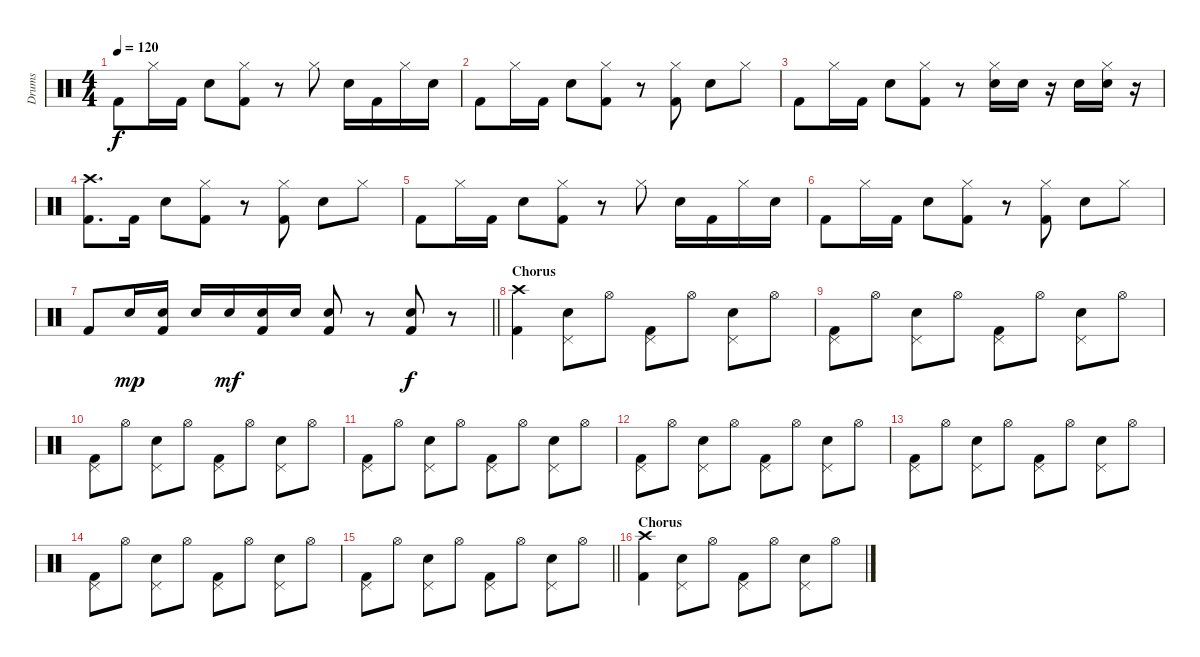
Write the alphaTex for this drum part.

\track ("Drums" "Drums") {instrument percussion}
\staff {score}
\articulation defaults
\ts (4 4)
\tempo 120
\clef neutral
\ks c "Kick (hit) 2".8{dy f} "Hi-Hat (closed)".16 "Kick (hit) 2".16 "Electric Snare (hit)".8
("Hi-Hat (closed)" "Kick (hit) 2").8 r.8 "Hi-Hat (closed)".8 "Electric Snare (hit)".16 "Kick (hit) 2".16 "Hi-Hat (closed)".16 "Electric Snare (hit)".16 |
"Kick (hit) 2".8 "Hi-Hat (closed)".16 "Kick (hit) 2".16 "Electric Snare (hit)".8 ("Hi-Hat (closed)" "Kick (hit) 2").8 r.8 ("Hi-Hat (closed)" "Kick (hit) 2").8 "Electric Snare (hit)".8 "Hi-Hat (closed)".8 |
"Kick (hit) 2".8 "Hi-Hat (closed)".16 "Kick (hit) 2".16 "Electric Snare (hit)".8 ("Hi-Hat (closed)" "Kick (hit) 2").8 r.8 ("Hi-Hat (closed)" "Electric Snare (hit)").16 "Electric Snare (hit)".16 r.16 "Electric Snare (hit)".16 ("Hi-Hat (closed)" "Electric Snare (hit)").16 r.16 |
("Crash high (hit)" "Kick (hit) 2").8{d} "Kick (hit) 2".16 "Electric Snare (hit)".8 ("Hi-Hat (closed)" "Kick (hit) 2").8 r.8 ("Hi-Hat (closed)" "Kick (hit) 2").8 "Electric Snare (hit)".8 "Hi-Hat (closed)".8 |
"Kick (hit) 2".8 "Hi-Hat (closed)".16 "Kick (hit) 2".16 "Electric Snare (hit)".8 ("Hi-Hat (closed)" "Kick (hit) 2").8 r.8 "Hi-Hat (closed)".8 "Electric Snare (hit)".16 "Kick (hit) 2".16 "Hi-Hat (closed)".16 "Electric Snare (hit)".16 |
"Kick (hit) 2".8 "Hi-Hat (closed)".16 "Kick (hit) 2".16 "Electric Snare (hit)".8 ("Hi-Hat (closed)" "Kick (hit) 2").8 r.8 ("Hi-Hat (closed)" "Kick (hit) 2").8 "Electric Snare (hit)".8 "Hi-Hat (closed)".8 |
\barLineRight lightlight "Kick (hit) 2".8 "Electric Snare (hit)".16{dy mp}
("Electric Snare (hit)" "Kick (hit) 2").16 "Electric Snare (hit)".16 "Electric Snare (hit)".16{dy mf} ("Electric Snare (hit)" "Kick (hit) 2").16 "Electric Snare (hit)".16 ("Electric Snare (hit)" "Kick (hit) 2").8 r.8 ("Electric Snare (hit)" "Kick (hit) 2").8{dy f} r.8 |
\section ("" "Chorus")
("Crash high (hit)" "Kick (hit) 2").4 ("Pedal Hi-Hat (hit)" "Electric Snare (hit)").8 "Hi-Hat (open)".8 ("Pedal Hi-Hat (hit)" "Kick (hit) 2").8 "Hi-Hat (open)".8 ("Pedal Hi-Hat (hit)" "Electric Snare (hit)").8 "Hi-Hat (open)".8 |
("Pedal Hi-Hat (hit)" "Kick (hit) 2").8 "Hi-Hat (open)".8 ("Pedal Hi-Hat (hit)" "Electric Snare (hit)").8 "Hi-Hat (open)".8 ("Pedal Hi-Hat (hit)" "Kick (hit) 2").8 "Hi-Hat (open)".8 ("Pedal Hi-Hat (hit)" "Electric Snare (hit)").8 "Hi-Hat (open)".8 |
("Pedal Hi-Hat (hit)" "Kick (hit) 2").8 "Hi-Hat (open)".8 ("Pedal Hi-Hat (hit)" "Electric Snare (hit)").8 "Hi-Hat (open)".8 ("Pedal Hi-Hat (hit)" "Kick (hit) 2").8 "Hi-Hat (open)".8 ("Pedal Hi-Hat (hit)" "Electric Snare (hit)").8 "Hi-Hat (open)".8 |
("Pedal Hi-Hat (hit)" "Kick (hit) 2").8 "Hi-Hat (open)".8 ("Pedal Hi-Hat (hit)" "Electric Snare (hit)").8 "Hi-Hat (open)".8 ("Pedal Hi-Hat (hit)" "Kick (hit) 2").8 "Hi-Hat (open)".8 ("Pedal Hi-Hat (hit)" "Electric Snare (hit)").8 "Hi-Hat (open)".8 |
("Pedal Hi-Hat (hit)" "Kick (hit) 2").8 "Hi-Hat (open)".8 ("Pedal Hi-Hat (hit)" "Electric Snare (hit)").8 "Hi-Hat (open)".8 ("Pedal Hi-Hat (hit)" "Kick (hit) 2").8 "Hi-Hat (open)".8 ("Pedal Hi-Hat (hit)" "Electric Snare (hit)").8 "Hi-Hat (open)".8 |
("Pedal Hi-Hat (hit)" "Kick (hit) 2").8 "Hi-Hat (open)".8 ("Pedal Hi-Hat (hit)" "Electric Snare (hit)").8 "Hi-Hat (open)".8 ("Pedal Hi-Hat (hit)" "Kick (hit) 2").8 "Hi-Hat (open)".8 ("Pedal Hi-Hat (hit)" "Electric Snare (hit)").8 "Hi-Hat (open)".8 |
("Pedal Hi-Hat (hit)" "Kick (hit) 2").8 "Hi-Hat (open)".8 ("Pedal Hi-Hat (hit)" "Electric Snare (hit)").8 "Hi-Hat (open)".8 ("Pedal Hi-Hat (hit)" "Kick (hit) 2").8 "Hi-Hat (open)".8 ("Pedal Hi-Hat (hit)" "Electric Snare (hit)").8 "Hi-Hat (open)".8 |
\barLineRight lightlight
("Pedal Hi-Hat (hit)" "Kick (hit) 2").8 "Hi-Hat (open)".8 ("Pedal Hi-Hat (hit)" "Electric Snare (hit)").8 "Hi-Hat (open)".8 ("Pedal Hi-Hat (hit)" "Kick (hit) 2").8 "Hi-Hat (open)".8 ("Pedal Hi-Hat (hit)" "Electric Snare (hit)").8 "Hi-Hat (open)".8 |
\section ("" "Chorus")
("Crash high (hit)" "Kick (hit) 2").4 ("Pedal Hi-Hat (hit)" "Electric Snare (hit)").8 "Hi-Hat (open)".8 ("Pedal Hi-Hat (hit)" "Kick (hit) 2").8 "Hi-Hat (open)".8 ("Pedal Hi-Hat (hit)" "Electric Snare (hit)").8 "Hi-Hat (open)".8
